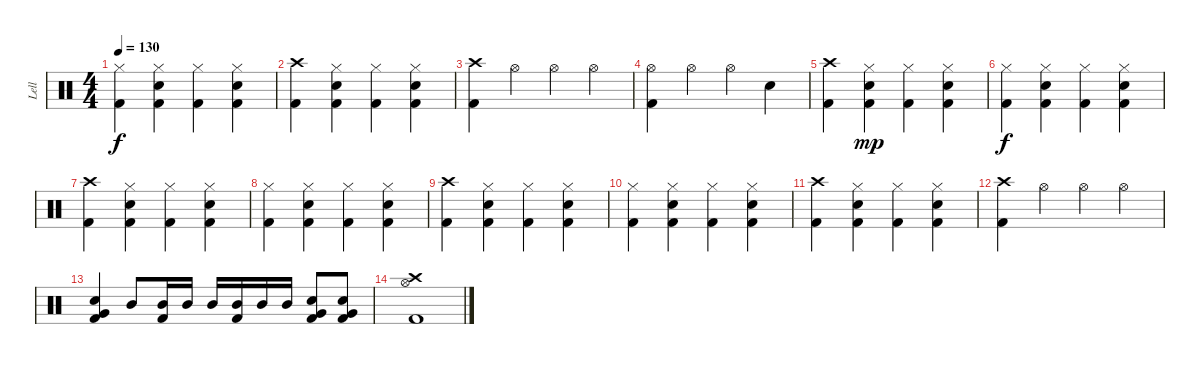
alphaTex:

\track ("Lell" "Lell") {instrument percussion}
\staff {score}
\articulation defaults
\ts (4 4)
\tempo 130
\clef neutral
\ks c
("Hi-Hat (closed)" "Kick (hit) 2").4{dy f} ("Hi-Hat (closed)" "Snare (hit) 2" "Kick (hit) 2").4 ("Hi-Hat (closed)" "Kick (hit) 2").4 ("Hi-Hat (closed)" "Snare (hit) 2" "Kick (hit) 2").4 |
("Crash high (hit)" "Kick (hit) 2").4 ("Hi-Hat (closed)" "Snare (hit) 2" "Kick (hit) 2").4 ("Hi-Hat (closed)" "Kick (hit) 2").4 ("Hi-Hat (closed)" "Snare (hit) 2" "Kick (hit) 2").4 |
("Crash high (hit)" "Kick (hit) 2").4 "Hi-Hat (open)".4 "Hi-Hat (open)".4 "Hi-Hat (open)".4 |
("Hi-Hat (open)" "Kick (hit) 2").4 "Hi-Hat (open)".4 "Hi-Hat (open)".4 "Snare (hit) 2".4 |
("Crash high (hit)" "Kick (hit) 2").4 ("Hi-Hat (closed)" "Snare (hit) 2" "Kick (hit) 2").4{dy mp} ("Hi-Hat (closed)" "Kick (hit) 2").4 ("Hi-Hat (closed)" "Snare (hit) 2" "Kick (hit) 2").4 |
("Hi-Hat (closed)" "Kick (hit) 2").4{dy f} ("Hi-Hat (closed)" "Snare (hit) 2" "Kick (hit) 2").4 ("Hi-Hat (closed)" "Kick (hit) 2").4 ("Hi-Hat (closed)" "Snare (hit) 2" "Kick (hit) 2").4 |
("Crash high (hit)" "Kick (hit) 2").4 ("Hi-Hat (closed)" "Snare (hit) 2" "Kick (hit) 2").4 ("Hi-Hat (closed)" "Kick (hit) 2").4 ("Hi-Hat (closed)" "Snare (hit) 2" "Kick (hit) 2").4 |
("Hi-Hat (closed)" "Kick (hit) 2").4 ("Hi-Hat (closed)" "Snare (hit) 2" "Kick (hit) 2").4 ("Hi-Hat (closed)" "Kick (hit) 2").4 ("Hi-Hat (closed)" "Snare (hit) 2" "Kick (hit) 2").4 |
("Crash high (hit)" "Kick (hit) 2").4 ("Hi-Hat (closed)" "Snare (hit) 2" "Kick (hit) 2").4 ("Hi-Hat (closed)" "Kick (hit) 2").4 ("Hi-Hat (closed)" "Snare (hit) 2" "Kick (hit) 2").4 |
("Hi-Hat (closed)" "Kick (hit) 2").4 ("Hi-Hat (closed)" "Snare (hit) 2" "Kick (hit) 2").4 ("Hi-Hat (closed)" "Kick (hit) 2").4 ("Hi-Hat (closed)" "Snare (hit) 2" "Kick (hit) 2").4 |
("Crash high (hit)" "Kick (hit) 2").4 ("Hi-Hat (closed)" "Snare (hit) 2" "Kick (hit) 2").4 ("Hi-Hat (closed)" "Kick (hit) 2").4 ("Hi-Hat (closed)" "Snare (hit) 2" "Kick (hit) 2").4 |
("Crash high (hit)" "Kick (hit) 2").4 "Hi-Hat (open)".4 "Hi-Hat (open)".4 "Hi-Hat (open)".4 |
("Very Low Tom (hit)" "Snare (hit) 2" "Kick (hit) 2").4 "Mid Tom (hit)".8 ("Mid Tom (hit)" "Kick (hit) 2").16 "Mid Tom (hit)".16 "Mid Tom (hit)".16 ("Mid Tom (hit)" "Kick (hit) 2").16 "Mid Tom (hit)".16 "Mid Tom (hit)".16 ("Very Low Tom (hit)" "Snare (hit) 2" "Kick (hit) 2").8 ("Very Low Tom (hit)" "Snare (hit) 2" "Kick (hit) 2").8 |
("Crash high (hit)" "Hi-Hat (open)" "Kick (hit) 2").1
